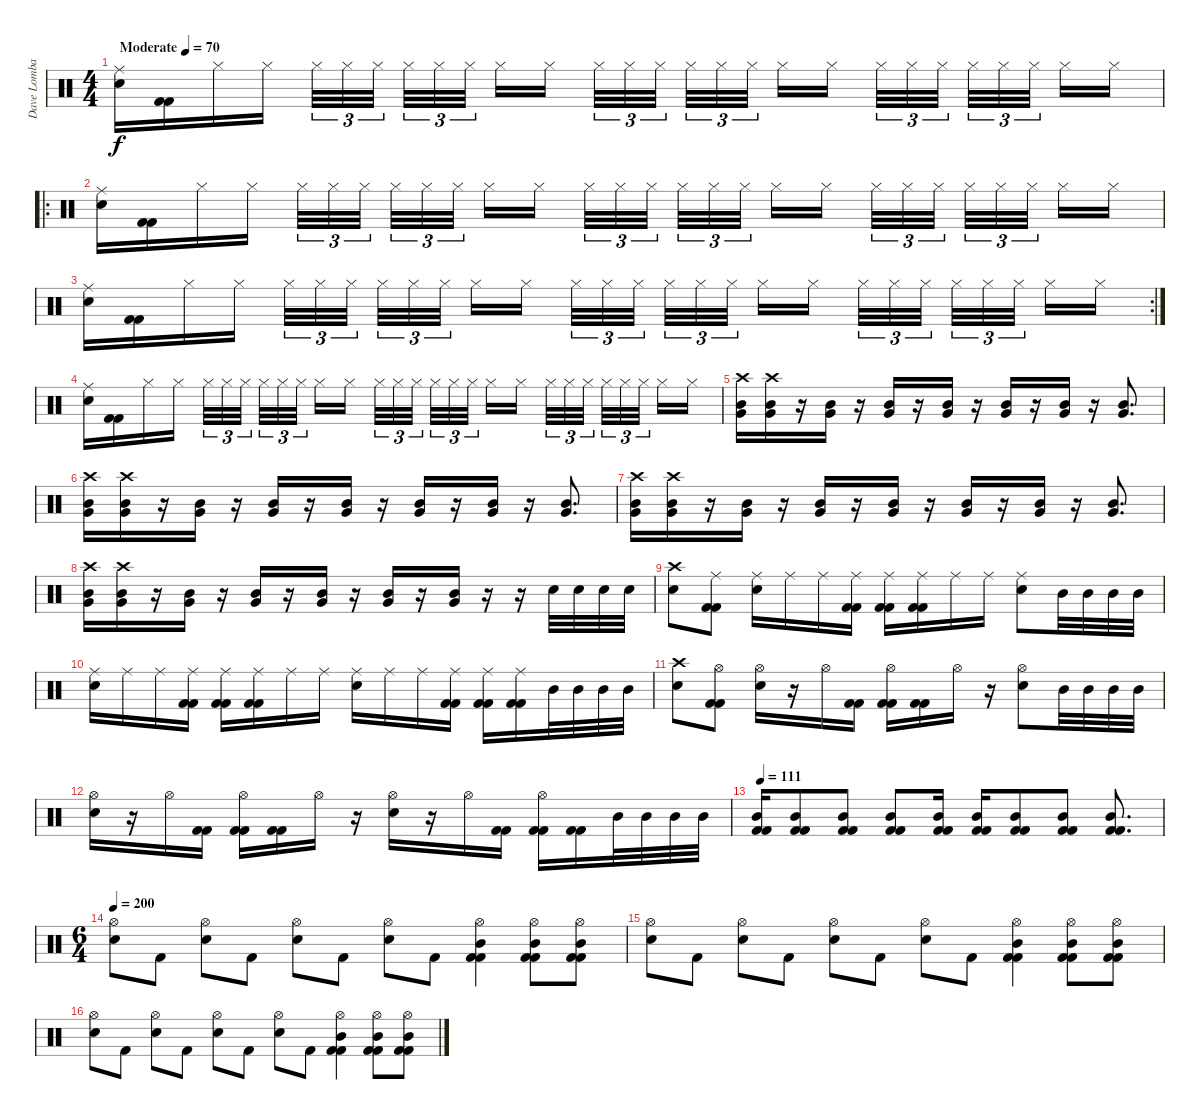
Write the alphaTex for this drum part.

\track ("Dave Lombardo:" "Dave Lomba") {instrument percussion}
\staff {score}
\articulation defaults
\ts (4 4)
\tempo (70 "Moderate")
\clef neutral
\ks c
("Ride (middle)" "Electric Snare (hit)").16{dy f} ("Kick (hit) 2" "Kick (hit) 2").16 "Hi-Hat (closed)".16 "Hi-Hat (closed)".16 "Hi-Hat (closed)".32{tu (3 2)} "Hi-Hat (closed)".32{tu (3 2)} "Hi-Hat (closed)".32{tu (3 2) beam splitsecondary} "Hi-Hat (closed)".32{tu (3 2)} "Hi-Hat (closed)".32{tu (3 2)} "Hi-Hat (closed)".32{tu (3 2) beam splitsecondary} "Hi-Hat (closed)".16 "Hi-Hat (closed)".16 "Hi-Hat (closed)".32{tu (3 2)} "Hi-Hat (closed)".32{tu (3 2)} "Hi-Hat (closed)".32{tu (3 2) beam splitsecondary} "Hi-Hat (closed)".32{tu (3 2)} "Hi-Hat (closed)".32{tu (3 2)} "Hi-Hat (closed)".32{tu (3 2) beam splitsecondary} "Hi-Hat (closed)".16 "Hi-Hat (closed)".16 "Hi-Hat (closed)".32{tu (3 2)} "Hi-Hat (closed)".32{tu (3 2)} "Hi-Hat (closed)".32{tu (3 2) beam splitsecondary} "Hi-Hat (closed)".32{tu (3 2)} "Hi-Hat (closed)".32{tu (3 2)} "Hi-Hat (closed)".32{tu (3 2) beam splitsecondary} "Hi-Hat (closed)".16 "Hi-Hat (closed)".16 |
\ro
("Ride (middle)" "Electric Snare (hit)").16 ("Kick (hit) 2" "Kick (hit) 2").16 "Hi-Hat (closed)".16 "Hi-Hat (closed)".16 "Hi-Hat (closed)".32{tu (3 2)} "Hi-Hat (closed)".32{tu (3 2)} "Hi-Hat (closed)".32{tu (3 2) beam splitsecondary} "Hi-Hat (closed)".32{tu (3 2)} "Hi-Hat (closed)".32{tu (3 2)} "Hi-Hat (closed)".32{tu (3 2) beam splitsecondary} "Hi-Hat (closed)".16 "Hi-Hat (closed)".16 "Hi-Hat (closed)".32{tu (3 2)} "Hi-Hat (closed)".32{tu (3 2)} "Hi-Hat (closed)".32{tu (3 2) beam splitsecondary} "Hi-Hat (closed)".32{tu (3 2)} "Hi-Hat (closed)".32{tu (3 2)} "Hi-Hat (closed)".32{tu (3 2) beam splitsecondary} "Hi-Hat (closed)".16 "Hi-Hat (closed)".16 "Hi-Hat (closed)".32{tu (3 2)} "Hi-Hat (closed)".32{tu (3 2)} "Hi-Hat (closed)".32{tu (3 2) beam splitsecondary} "Hi-Hat (closed)".32{tu (3 2)} "Hi-Hat (closed)".32{tu (3 2)} "Hi-Hat (closed)".32{tu (3 2) beam splitsecondary} "Hi-Hat (closed)".16 "Hi-Hat (closed)".16 |
\rc 2
("Ride (middle)" "Electric Snare (hit)").16 ("Kick (hit) 2" "Kick (hit) 2").16 "Hi-Hat (closed)".16 "Hi-Hat (closed)".16 "Hi-Hat (closed)".32{tu (3 2)} "Hi-Hat (closed)".32{tu (3 2)} "Hi-Hat (closed)".32{tu (3 2) beam splitsecondary} "Hi-Hat (closed)".32{tu (3 2)} "Hi-Hat (closed)".32{tu (3 2)} "Hi-Hat (closed)".32{tu (3 2) beam splitsecondary} "Hi-Hat (closed)".16 "Hi-Hat (closed)".16 "Hi-Hat (closed)".32{tu (3 2)} "Hi-Hat (closed)".32{tu (3 2)} "Hi-Hat (closed)".32{tu (3 2) beam splitsecondary} "Hi-Hat (closed)".32{tu (3 2)} "Hi-Hat (closed)".32{tu (3 2)} "Hi-Hat (closed)".32{tu (3 2) beam splitsecondary} "Hi-Hat (closed)".16 "Hi-Hat (closed)".16 "Hi-Hat (closed)".32{tu (3 2)} "Hi-Hat (closed)".32{tu (3 2)} "Hi-Hat (closed)".32{tu (3 2) beam splitsecondary} "Hi-Hat (closed)".32{tu (3 2)} "Hi-Hat (closed)".32{tu (3 2)} "Hi-Hat (closed)".32{tu (3 2) beam splitsecondary} "Hi-Hat (closed)".16 "Hi-Hat (closed)".16 |
("Ride (middle)" "Electric Snare (hit)").16 ("Kick (hit) 2" "Kick (hit) 2").16 "Hi-Hat (closed)".16 "Hi-Hat (closed)".16 "Hi-Hat (closed)".32{tu (3 2)} "Hi-Hat (closed)".32{tu (3 2)} "Hi-Hat (closed)".32{tu (3 2) beam splitsecondary} "Hi-Hat (closed)".32{tu (3 2)} "Hi-Hat (closed)".32{tu (3 2)} "Hi-Hat (closed)".32{tu (3 2) beam splitsecondary} "Hi-Hat (closed)".16 "Hi-Hat (closed)".16 "Hi-Hat (closed)".32{tu (3 2)} "Hi-Hat (closed)".32{tu (3 2)} "Hi-Hat (closed)".32{tu (3 2) beam splitsecondary} "Hi-Hat (closed)".32{tu (3 2)} "Hi-Hat (closed)".32{tu (3 2)} "Hi-Hat (closed)".32{tu (3 2) beam splitsecondary} "Hi-Hat (closed)".16 "Hi-Hat (closed)".16 "Hi-Hat (closed)".32{tu (3 2)} "Hi-Hat (closed)".32{tu (3 2)} "Hi-Hat (closed)".32{tu (3 2) beam splitsecondary} "Hi-Hat (closed)".32{tu (3 2)} "Hi-Hat (closed)".32{tu (3 2)} "Hi-Hat (closed)".32{tu (3 2) beam splitsecondary} "Hi-Hat (closed)".16 "Hi-Hat (closed)".16 |
("Crash high (hit)" "Mid Tom (hit)" "Very Low Tom (hit)").16 ("Crash high (hit)" "Mid Tom (hit)" "Very Low Tom (hit)").16 r.16 ("Mid Tom (hit)" "Very Low Tom (hit)").16 r.16 ("Mid Tom (hit)" "Very Low Tom (hit)").16 r.16 ("Mid Tom (hit)" "Very Low Tom (hit)").16 r.16 ("Mid Tom (hit)" "Very Low Tom (hit)").16 r.16 ("Mid Tom (hit)" "Very Low Tom (hit)").16 r.16 ("Mid Tom (hit)" "Very Low Tom (hit)").8{d} |
("Crash high (hit)" "Mid Tom (hit)" "Very Low Tom (hit)").16 ("Crash high (hit)" "Mid Tom (hit)" "Very Low Tom (hit)").16 r.16 ("Mid Tom (hit)" "Very Low Tom (hit)").16 r.16 ("Mid Tom (hit)" "Very Low Tom (hit)").16 r.16 ("Mid Tom (hit)" "Very Low Tom (hit)").16 r.16 ("Mid Tom (hit)" "Very Low Tom (hit)").16 r.16 ("Mid Tom (hit)" "Very Low Tom (hit)").16 r.16 ("Mid Tom (hit)" "Very Low Tom (hit)").8{d} |
("Crash high (hit)" "Mid Tom (hit)" "Very Low Tom (hit)").16 ("Crash high (hit)" "Mid Tom (hit)" "Very Low Tom (hit)").16 r.16 ("Mid Tom (hit)" "Very Low Tom (hit)").16 r.16 ("Mid Tom (hit)" "Very Low Tom (hit)").16 r.16 ("Mid Tom (hit)" "Very Low Tom (hit)").16 r.16 ("Mid Tom (hit)" "Very Low Tom (hit)").16 r.16 ("Mid Tom (hit)" "Very Low Tom (hit)").16 r.16 ("Mid Tom (hit)" "Very Low Tom (hit)").8{d} |
("Crash high (hit)" "Mid Tom (hit)" "Very Low Tom (hit)").16 ("Crash high (hit)" "Mid Tom (hit)" "Very Low Tom (hit)").16 r.16 ("Mid Tom (hit)" "Very Low Tom (hit)").16 r.16 ("Mid Tom (hit)" "Very Low Tom (hit)").16 r.16 ("Mid Tom (hit)" "Very Low Tom (hit)").16 r.16 ("Mid Tom (hit)" "Very Low Tom (hit)").16 r.16 ("Mid Tom (hit)" "Very Low Tom (hit)").16 r.16 r.16 "Electric Snare (hit)".32 "Electric Snare (hit)".32 "Electric Snare (hit)".32 "Electric Snare (hit)".32 |
("Crash high (hit)" "Electric Snare (hit)").8 ("Ride (middle)" "Kick (hit) 2" "Kick (hit) 2").8 ("Ride (middle)" "Electric Snare (hit)").16 "Ride (middle)".16 "Ride (middle)".16 ("Ride (middle)" "Kick (hit) 2" "Kick (hit) 2").16 ("Ride (middle)" "Kick (hit) 2" "Kick (hit) 2").16 ("Ride (middle)" "Kick (hit) 2" "Kick (hit) 2").16 "Ride (middle)".16 "Ride (middle)".16 ("Ride (middle)" "Electric Snare (hit)").8 "Mid Tom (hit)".32 "Mid Tom (hit)".32 "Mid Tom (hit)".32 "Mid Tom (hit)".32 |
("Ride (middle)" "Electric Snare (hit)").16 "Ride (middle)".16 "Ride (middle)".16 ("Ride (middle)" "Kick (hit) 2" "Kick (hit) 2").16 ("Ride (middle)" "Kick (hit) 2" "Kick (hit) 2").16 ("Ride (middle)" "Kick (hit) 2" "Kick (hit) 2").16 "Ride (middle)".16 "Ride (middle)".16 ("Ride (middle)" "Electric Snare (hit)").16 "Ride (middle)".16 "Ride (middle)".16 ("Ride (middle)" "Kick (hit) 2" "Kick (hit) 2").16 ("Ride (middle)" "Kick (hit) 2" "Kick (hit) 2").16 ("Ride (middle)" "Kick (hit) 2" "Kick (hit) 2").16 "Mid Tom (hit)".32 "Mid Tom (hit)".32 "Mid Tom (hit)".32 "Mid Tom (hit)".32 |
("Crash high (hit)" "Electric Snare (hit)").8 ("Hi-Hat (open)" "Kick (hit) 2" "Kick (hit) 2").8 ("Hi-Hat (open)" "Electric Snare (hit)").16 r.16 "Hi-Hat (open)".16 ("Kick (hit) 2" "Kick (hit) 2").16 ("Hi-Hat (open)" "Kick (hit) 2" "Kick (hit) 2").16 ("Kick (hit) 2" "Kick (hit) 2").16 "Hi-Hat (open)".16 r.16 ("Hi-Hat (open)" "Electric Snare (hit)").8 "Mid Tom (hit)".32 "Mid Tom (hit)".32 "Mid Tom (hit)".32 "Mid Tom (hit)".32 |
("Hi-Hat (open)" "Electric Snare (hit)").16 r.16 "Hi-Hat (open)".16 ("Kick (hit) 2" "Kick (hit) 2").16 ("Hi-Hat (open)" "Kick (hit) 2" "Kick (hit) 2").16 ("Kick (hit) 2" "Kick (hit) 2").16 "Hi-Hat (open)".16 r.16 ("Hi-Hat (open)" "Electric Snare (hit)").16 r.16 "Hi-Hat (open)".16 ("Kick (hit) 2" "Kick (hit) 2").16 ("Hi-Hat (open)" "Kick (hit) 2" "Kick (hit) 2").16 ("Kick (hit) 2" "Kick (hit) 2").16 "Mid Tom (hit)".32 "Mid Tom (hit)".32 "Mid Tom (hit)".32 "Mid Tom (hit)".32 |
\tempo 111
("Mid Tom (hit)" "Kick (hit) 2" "Kick (hit) 2").16 ("Mid Tom (hit)" "Kick (hit) 2" "Kick (hit) 2").8 ("Mid Tom (hit)" "Kick (hit) 2" "Kick (hit) 2").8 ("Mid Tom (hit)" "Kick (hit) 2" "Kick (hit) 2").8 ("Mid Tom (hit)" "Kick (hit) 2" "Kick (hit) 2").16 ("Mid Tom (hit)" "Kick (hit) 2" "Kick (hit) 2").16 ("Mid Tom (hit)" "Kick (hit) 2" "Kick (hit) 2").8 ("Mid Tom (hit)" "Kick (hit) 2" "Kick (hit) 2").8 ("Mid Tom (hit)" "Kick (hit) 2" "Kick (hit) 2").8{d} |
\ts (6 4)
\tempo 200
("Hi-Hat (open)" "Electric Snare (hit)").8 "Kick (hit) 2".8 ("Hi-Hat (open)" "Electric Snare (hit)").8 "Kick (hit) 2".8 ("Hi-Hat (open)" "Electric Snare (hit)").8 "Kick (hit) 2".8 ("Hi-Hat (open)" "Electric Snare (hit)").8 "Kick (hit) 2".8 ("Hi-Hat (open)" "Mid Tom (hit)" "Kick (hit) 2" "Kick (hit) 2").4 ("Hi-Hat (open)" "Mid Tom (hit)" "Kick (hit) 2" "Kick (hit) 2").8 ("Hi-Hat (open)" "Mid Tom (hit)" "Kick (hit) 2" "Kick (hit) 2").8 |
("Hi-Hat (open)" "Electric Snare (hit)").8 "Kick (hit) 2".8 ("Hi-Hat (open)" "Electric Snare (hit)").8 "Kick (hit) 2".8 ("Hi-Hat (open)" "Electric Snare (hit)").8 "Kick (hit) 2".8 ("Hi-Hat (open)" "Electric Snare (hit)").8 "Kick (hit) 2".8 ("Hi-Hat (open)" "Mid Tom (hit)" "Kick (hit) 2" "Kick (hit) 2").4 ("Hi-Hat (open)" "Mid Tom (hit)" "Kick (hit) 2" "Kick (hit) 2").8 ("Hi-Hat (open)" "Mid Tom (hit)" "Kick (hit) 2" "Kick (hit) 2").8 |
("Hi-Hat (open)" "Electric Snare (hit)").8 "Kick (hit) 2".8 ("Hi-Hat (open)" "Electric Snare (hit)").8 "Kick (hit) 2".8 ("Hi-Hat (open)" "Electric Snare (hit)").8 "Kick (hit) 2".8 ("Hi-Hat (open)" "Electric Snare (hit)").8 "Kick (hit) 2".8 ("Hi-Hat (open)" "Mid Tom (hit)" "Kick (hit) 2" "Kick (hit) 2").4 ("Hi-Hat (open)" "Mid Tom (hit)" "Kick (hit) 2" "Kick (hit) 2").8 ("Hi-Hat (open)" "Mid Tom (hit)" "Kick (hit) 2" "Kick (hit) 2").8
